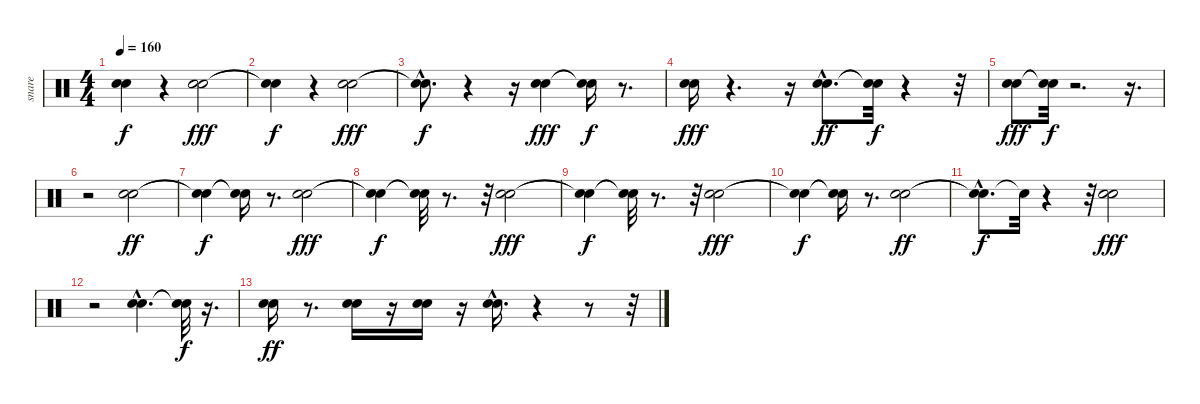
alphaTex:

\track ("snare" "snare") {instrument percussion}
\staff {score}
\articulation defaults
\ts (4 4)
\tempo 160
\clef neutral
\ks c
("Snare (hit)"{t} "Snare (hit)"{t}).4{dy f} r.4 ("Snare (hit) 2" "Electric Snare (hit)").2{dy fff} |
("Snare (hit)"{t} "Snare (hit)"{t}).4{dy f} r.4 ("Electric Snare (hit)" "Snare (hit) 2").2{dy fff} |
("Snare (hit)"{t} "Snare (hit)"{hac t}).8{d dy f} r.4 r.16 ("Snare (hit) 2" "Electric Snare (hit)").4{dy fff} ("Snare (hit)"{t} "Snare (hit)"{t}).16{dy f} r.8{d} |
("Electric Snare (hit)" "Snare (hit) 2").16{dy fff} r.4{d} r.16 ("Electric Snare (hit)"{hac} "Snare (hit) 2"{hac}).8{d dy ff} ("Snare (hit)"{t} "Snare (hit)"{t}).32{dy f} r.4 r.32 |
("Electric Snare (hit)" "Snare (hit) 2").8{dy fff} ("Snare (hit)"{t} "Snare (hit)"{t}).32{dy f} r.2{d} r.16{d} |
r.2 ("Hand Clap (hit)" "Snare (hit) 2").2{dy ff} |
("Snare (hit)"{t} "Snare (hit)"{t}).4{dy f} ("Snare (hit)"{t} "Snare (hit)"{t}).16 r.8{d} ("Hand Clap (hit)" "Snare (hit) 2").2{dy fff} |
("Snare (hit)"{t} "Snare (hit)"{t}).4{dy f} ("Snare (hit)"{t} "Snare (hit)"{t}).32 r.8{d} r.32 ("Hand Clap (hit)" "Snare (hit) 2").2{dy fff} |
("Snare (hit)"{t} "Snare (hit)"{t}).4{dy f} ("Snare (hit)"{t} "Snare (hit)"{t}).32 r.8{d} r.32 ("Hand Clap (hit)" "Snare (hit) 2").2{dy fff} |
("Snare (hit)"{t} "Snare (hit)"{t}).4{dy f} ("Snare (hit)"{t} "Snare (hit)"{t}).16 r.8{d} ("Hand Clap (hit)" "Snare (hit) 2").2{dy ff} |
("Snare (hit)"{hac t} "Snare (hit)"{hac t}).8{d dy f} "Snare (hit)"{t}.32 r.4 r.32 ("Hand Clap (hit)" "Snare (hit) 2").2{dy fff} |
r.2 ("Hand Clap (hit)"{hac} "Snare (hit) 2"{hac}).4{d} ("Snare (hit)"{t} "Snare (hit)"{t}).32{dy f} r.16{d} |
("Hand Clap (hit)" "Snare (hit) 2").16{dy ff} r.8{d} ("Electric Snare (hit)" "Snare (hit) 2").16 r.16 ("Electric Snare (hit)" "Snare (hit) 2").16 r.16 ("Electric Snare (hit)"{hac} "Snare (hit) 2").16{d} r.4 r.8 r.32
